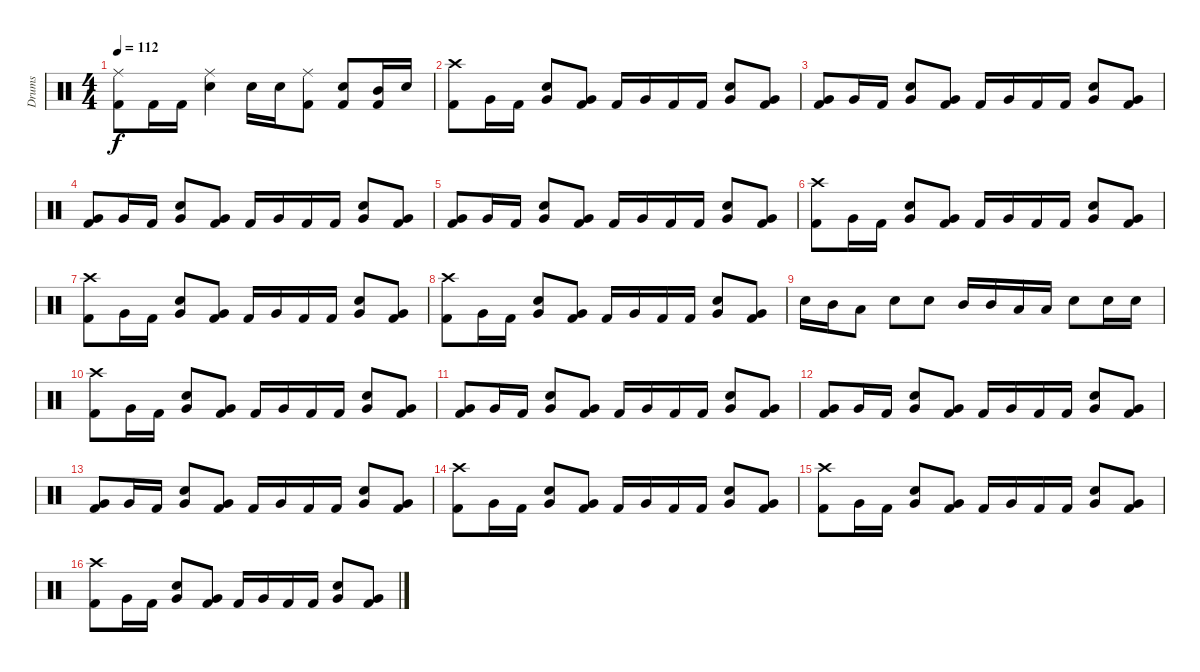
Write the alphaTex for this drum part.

\track ("Drums" "Drums") {instrument percussion}
\staff {score}
\articulation defaults
\ts (4 4)
\tempo 112
\clef neutral
\ks c
("Ride (middle)" "Kick (hit) 2").8{dy f} "Kick (hit) 2".16 "Kick (hit) 2".16 ("Ride (middle)" "Electric Snare (hit)").4 "Electric Snare (hit)".16 "Electric Snare (hit)".16 ("Ride (middle)" "Kick (hit) 2").8 ("Electric Snare (hit)" "Kick (hit) 2").8 ("Mid Tom (hit)" "Kick (hit) 2").16 "Electric Snare (hit)".16 |
("Crash high (hit)" "Kick (hit) 2").8 "Very Low Tom (hit)".16 "Kick (hit) 2".16 ("Electric Snare (hit)" "Very Low Tom (hit)").8 ("Very Low Tom (hit)" "Kick (hit) 2").8 "Kick (hit) 2".16 "Very Low Tom (hit)".16 "Kick (hit) 2".16 "Kick (hit) 2".16 ("Electric Snare (hit)" "Very Low Tom (hit)").8 ("Very Low Tom (hit)" "Kick (hit) 2").8 |
("Very Low Tom (hit)" "Kick (hit) 2").8 "Very Low Tom (hit)".16 "Kick (hit) 2".16 ("Electric Snare (hit)" "Very Low Tom (hit)").8 ("Very Low Tom (hit)" "Kick (hit) 2").8 "Kick (hit) 2".16 "Very Low Tom (hit)".16 "Kick (hit) 2".16 "Kick (hit) 2".16 ("Electric Snare (hit)" "Very Low Tom (hit)").8 ("Very Low Tom (hit)" "Kick (hit) 2").8 |
("Very Low Tom (hit)" "Kick (hit) 2").8 "Very Low Tom (hit)".16 "Kick (hit) 2".16 ("Electric Snare (hit)" "Very Low Tom (hit)").8 ("Very Low Tom (hit)" "Kick (hit) 2").8 "Kick (hit) 2".16 "Very Low Tom (hit)".16 "Kick (hit) 2".16 "Kick (hit) 2".16 ("Electric Snare (hit)" "Very Low Tom (hit)").8 ("Very Low Tom (hit)" "Kick (hit) 2").8 |
("Very Low Tom (hit)" "Kick (hit) 2").8 "Very Low Tom (hit)".16 "Kick (hit) 2".16 ("Electric Snare (hit)" "Very Low Tom (hit)").8 ("Very Low Tom (hit)" "Kick (hit) 2").8 "Kick (hit) 2".16 "Very Low Tom (hit)".16 "Kick (hit) 2".16 "Kick (hit) 2".16 ("Electric Snare (hit)" "Very Low Tom (hit)").8 ("Very Low Tom (hit)" "Kick (hit) 2").8 |
("Crash high (hit)" "Kick (hit) 2").8 "Very Low Tom (hit)".16 "Kick (hit) 2".16 ("Electric Snare (hit)" "Very Low Tom (hit)").8 ("Very Low Tom (hit)" "Kick (hit) 2").8 "Kick (hit) 2".16 "Very Low Tom (hit)".16 "Kick (hit) 2".16 "Kick (hit) 2".16 ("Electric Snare (hit)" "Very Low Tom (hit)").8 ("Very Low Tom (hit)" "Kick (hit) 2").8 |
("Crash high (hit)" "Kick (hit) 2").8 "Very Low Tom (hit)".16 "Kick (hit) 2".16 ("Electric Snare (hit)" "Very Low Tom (hit)").8 ("Very Low Tom (hit)" "Kick (hit) 2").8 "Kick (hit) 2".16 "Very Low Tom (hit)".16 "Kick (hit) 2".16 "Kick (hit) 2".16 ("Electric Snare (hit)" "Very Low Tom (hit)").8 ("Very Low Tom (hit)" "Kick (hit) 2").8 |
("Crash high (hit)" "Kick (hit) 2").8 "Very Low Tom (hit)".16 "Kick (hit) 2".16 ("Electric Snare (hit)" "Very Low Tom (hit)").8 ("Very Low Tom (hit)" "Kick (hit) 2").8 "Kick (hit) 2".16 "Very Low Tom (hit)".16 "Kick (hit) 2".16 "Kick (hit) 2".16 ("Electric Snare (hit)" "Very Low Tom (hit)").8 ("Very Low Tom (hit)" "Kick (hit) 2").8 |
"Electric Snare (hit)".16 "Mid Tom (hit)".16 "Low Tom (hit)".8 "Electric Snare (hit)".8 "Electric Snare (hit)".8 "Mid Tom (hit)".16 "Mid Tom (hit)".16 "Low Tom (hit)".16 "Low Tom (hit)".16 "Electric Snare (hit)".8 "Electric Snare (hit)".16 "Electric Snare (hit)".16 |
("Crash high (hit)" "Kick (hit) 2").8 "Very Low Tom (hit)".16 "Kick (hit) 2".16 ("Electric Snare (hit)" "Very Low Tom (hit)").8 ("Very Low Tom (hit)" "Kick (hit) 2").8 "Kick (hit) 2".16 "Very Low Tom (hit)".16 "Kick (hit) 2".16 "Kick (hit) 2".16 ("Electric Snare (hit)" "Very Low Tom (hit)").8 ("Very Low Tom (hit)" "Kick (hit) 2").8 |
("Very Low Tom (hit)" "Kick (hit) 2").8 "Very Low Tom (hit)".16 "Kick (hit) 2".16 ("Electric Snare (hit)" "Very Low Tom (hit)").8 ("Very Low Tom (hit)" "Kick (hit) 2").8 "Kick (hit) 2".16 "Very Low Tom (hit)".16 "Kick (hit) 2".16 "Kick (hit) 2".16 ("Electric Snare (hit)" "Very Low Tom (hit)").8 ("Very Low Tom (hit)" "Kick (hit) 2").8 |
("Very Low Tom (hit)" "Kick (hit) 2").8 "Very Low Tom (hit)".16 "Kick (hit) 2".16 ("Electric Snare (hit)" "Very Low Tom (hit)").8 ("Very Low Tom (hit)" "Kick (hit) 2").8 "Kick (hit) 2".16 "Very Low Tom (hit)".16 "Kick (hit) 2".16 "Kick (hit) 2".16 ("Electric Snare (hit)" "Very Low Tom (hit)").8 ("Very Low Tom (hit)" "Kick (hit) 2").8 |
("Very Low Tom (hit)" "Kick (hit) 2").8 "Very Low Tom (hit)".16 "Kick (hit) 2".16 ("Electric Snare (hit)" "Very Low Tom (hit)").8 ("Very Low Tom (hit)" "Kick (hit) 2").8 "Kick (hit) 2".16 "Very Low Tom (hit)".16 "Kick (hit) 2".16 "Kick (hit) 2".16 ("Electric Snare (hit)" "Very Low Tom (hit)").8 ("Very Low Tom (hit)" "Kick (hit) 2").8 |
("Crash high (hit)" "Kick (hit) 2").8 "Very Low Tom (hit)".16 "Kick (hit) 2".16 ("Electric Snare (hit)" "Very Low Tom (hit)").8 ("Very Low Tom (hit)" "Kick (hit) 2").8 "Kick (hit) 2".16 "Very Low Tom (hit)".16 "Kick (hit) 2".16 "Kick (hit) 2".16 ("Electric Snare (hit)" "Very Low Tom (hit)").8 ("Very Low Tom (hit)" "Kick (hit) 2").8 |
("Crash high (hit)" "Kick (hit) 2").8 "Very Low Tom (hit)".16 "Kick (hit) 2".16 ("Electric Snare (hit)" "Very Low Tom (hit)").8 ("Very Low Tom (hit)" "Kick (hit) 2").8 "Kick (hit) 2".16 "Very Low Tom (hit)".16 "Kick (hit) 2".16 "Kick (hit) 2".16 ("Electric Snare (hit)" "Very Low Tom (hit)").8 ("Very Low Tom (hit)" "Kick (hit) 2").8 |
("Crash high (hit)" "Kick (hit) 2").8 "Very Low Tom (hit)".16 "Kick (hit) 2".16 ("Electric Snare (hit)" "Very Low Tom (hit)").8 ("Very Low Tom (hit)" "Kick (hit) 2").8 "Kick (hit) 2".16 "Very Low Tom (hit)".16 "Kick (hit) 2".16 "Kick (hit) 2".16 ("Electric Snare (hit)" "Very Low Tom (hit)").8 ("Very Low Tom (hit)" "Kick (hit) 2").8
